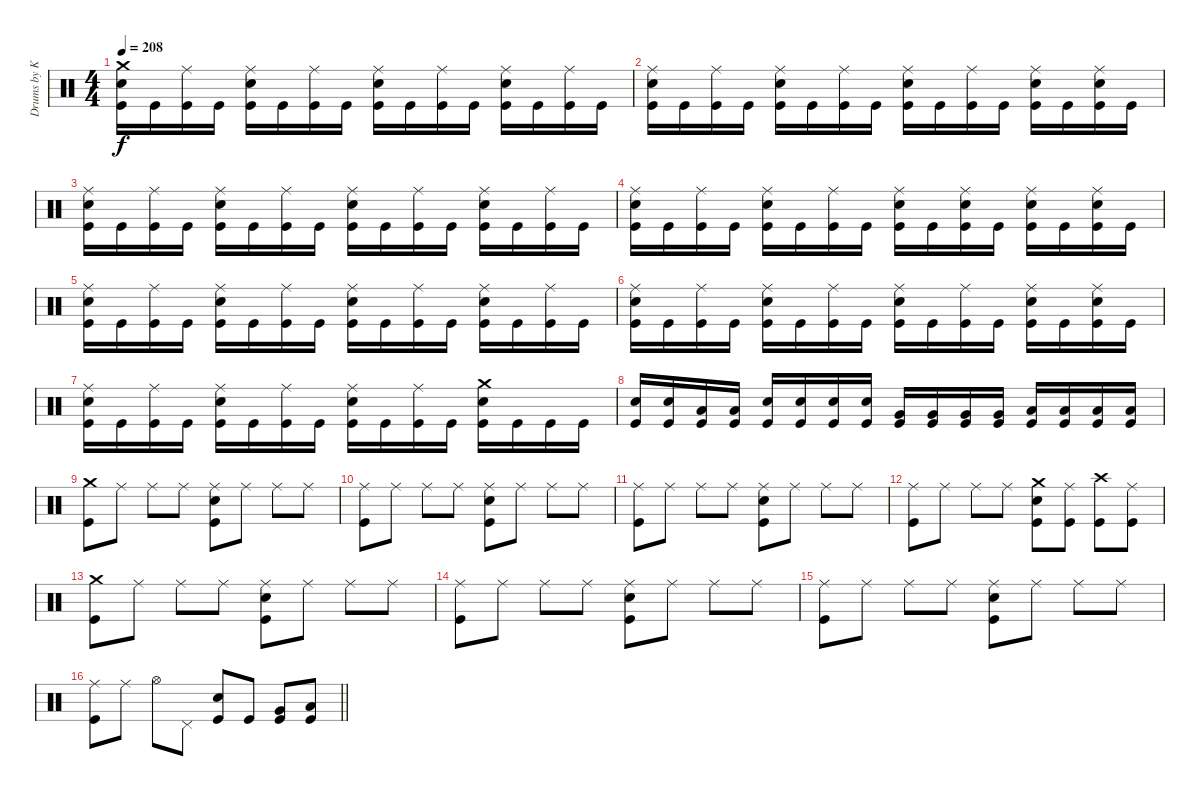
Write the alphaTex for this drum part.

\track ("Drums by Kwonnie" "Drums by K") {instrument percussion}
\staff {score}
\articulation defaults
\ts (4 4)
\tempo 208
\clef neutral
\ks c
("Crash medium (hit)" "Electric Snare (hit)" "Kick (hit)").16{dy f} "Kick (hit)".16 ("Ride (middle)" "Kick (hit)").16 "Kick (hit)".16 ("Ride (middle)" "Electric Snare (hit)" "Kick (hit)").16 "Kick (hit)".16 ("Ride (middle)" "Kick (hit)").16 "Kick (hit)".16 ("Ride (middle)" "Electric Snare (hit)" "Kick (hit)").16 "Kick (hit)".16 ("Ride (middle)" "Kick (hit)").16 "Kick (hit)".16 ("Ride (middle)" "Electric Snare (hit)" "Kick (hit)").16 "Kick (hit)".16 ("Ride (middle)" "Kick (hit)").16 "Kick (hit)".16 |
("Ride (middle)" "Electric Snare (hit)" "Kick (hit)").16 "Kick (hit)".16 ("Ride (middle)" "Kick (hit)").16 "Kick (hit)".16 ("Ride (middle)" "Electric Snare (hit)" "Kick (hit)").16 "Kick (hit)".16 ("Ride (middle)" "Kick (hit)").16 "Kick (hit)".16 ("Ride (middle)" "Electric Snare (hit)" "Kick (hit)").16 "Kick (hit)".16 ("Ride (middle)" "Kick (hit)").16 "Kick (hit)".16 ("Ride (middle)" "Electric Snare (hit)" "Kick (hit)").16 "Kick (hit)".16 ("Ride (middle)" "Electric Snare (hit)" "Kick (hit)").16 "Kick (hit)".16 |
("Ride (middle)" "Electric Snare (hit)" "Kick (hit)").16 "Kick (hit)".16 ("Ride (middle)" "Kick (hit)").16 "Kick (hit)".16 ("Ride (middle)" "Electric Snare (hit)" "Kick (hit)").16 "Kick (hit)".16 ("Ride (middle)" "Kick (hit)").16 "Kick (hit)".16 ("Ride (middle)" "Electric Snare (hit)" "Kick (hit)").16 "Kick (hit)".16 ("Ride (middle)" "Kick (hit)").16 "Kick (hit)".16 ("Ride (middle)" "Electric Snare (hit)" "Kick (hit)").16 "Kick (hit)".16 ("Ride (middle)" "Kick (hit)").16 "Kick (hit)".16 |
("Ride (middle)" "Electric Snare (hit)" "Kick (hit)").16 "Kick (hit)".16 ("Ride (middle)" "Kick (hit)").16 "Kick (hit)".16 ("Ride (middle)" "Electric Snare (hit)" "Kick (hit)").16 "Kick (hit)".16 ("Ride (middle)" "Kick (hit)").16 "Kick (hit)".16 ("Ride (middle)" "Electric Snare (hit)" "Kick (hit)").16 "Kick (hit)".16 ("Ride (middle)" "Electric Snare (hit)" "Kick (hit)").16 "Kick (hit)".16 ("Ride (middle)" "Electric Snare (hit)" "Kick (hit)").16 "Kick (hit)".16 ("Ride (middle)" "Electric Snare (hit)" "Kick (hit)").16 "Kick (hit)".16 |
("Ride (middle)" "Electric Snare (hit)" "Kick (hit)").16 "Kick (hit)".16 ("Ride (middle)" "Kick (hit)").16 "Kick (hit)".16 ("Ride (middle)" "Electric Snare (hit)" "Kick (hit)").16 "Kick (hit)".16 ("Ride (middle)" "Kick (hit)").16 "Kick (hit)".16 ("Ride (middle)" "Electric Snare (hit)" "Kick (hit)").16 "Kick (hit)".16 ("Ride (middle)" "Kick (hit)").16 "Kick (hit)".16 ("Ride (middle)" "Electric Snare (hit)" "Kick (hit)").16 "Kick (hit)".16 ("Ride (middle)" "Kick (hit)").16 "Kick (hit)".16 |
("Ride (middle)" "Electric Snare (hit)" "Kick (hit)").16 "Kick (hit)".16 ("Ride (middle)" "Kick (hit)").16 "Kick (hit)".16 ("Ride (middle)" "Electric Snare (hit)" "Kick (hit)").16 "Kick (hit)".16 ("Ride (middle)" "Kick (hit)").16 "Kick (hit)".16 ("Ride (middle)" "Electric Snare (hit)" "Kick (hit)").16 "Kick (hit)".16 ("Ride (middle)" "Kick (hit)").16 "Kick (hit)".16 ("Ride (middle)" "Electric Snare (hit)" "Kick (hit)").16 "Kick (hit)".16 ("Ride (middle)" "Electric Snare (hit)" "Kick (hit)").16 "Kick (hit)".16 |
("Ride (middle)" "Electric Snare (hit)" "Kick (hit)").16 "Kick (hit)".16 ("Ride (middle)" "Kick (hit)").16 "Kick (hit)".16 ("Ride (middle)" "Electric Snare (hit)" "Kick (hit)").16 "Kick (hit)".16 ("Ride (middle)" "Kick (hit)").16 "Kick (hit)".16 ("Ride (middle)" "Electric Snare (hit)" "Kick (hit)").16 "Kick (hit)".16 ("Ride (middle)" "Kick (hit)").16 "Kick (hit)".16 ("Crash medium (hit)" "Electric Snare (hit)" "Kick (hit)").16 "Kick (hit)".16 "Kick (hit)".16 "Kick (hit)".16 |
("Electric Snare (hit)" "Kick (hit)").16 ("Electric Snare (hit)" "Kick (hit)").16 ("Low Tom (hit)" "Kick (hit)").16 ("Low Tom (hit)" "Kick (hit)").16 ("Electric Snare (hit)" "Kick (hit)").16 ("Electric Snare (hit)" "Kick (hit)").16 ("Electric Snare (hit)" "Kick (hit)").16 ("Electric Snare (hit)" "Kick (hit)").16 ("Very Low Tom (hit)" "Kick (hit)").16 ("Very Low Tom (hit)" "Kick (hit)").16 ("Very Low Tom (hit)" "Kick (hit)").16 ("Very Low Tom (hit)" "Kick (hit)").16 ("Low Floor Tom (hit)" "Kick (hit)").16 ("Low Floor Tom (hit)" "Kick (hit)").16 ("Low Floor Tom (hit)" "Kick (hit)").16 ("Low Floor Tom (hit)" "Kick (hit)").16 |
("Crash medium (hit)" "Kick (hit)").8 "Ride (middle)".8 "Ride (middle)".8 "Ride (middle)".8 ("Ride (middle)" "Electric Snare (hit)" "Kick (hit)").8 "Ride (middle)".8 "Ride (middle)".8 "Ride (middle)".8 |
("Ride (middle)" "Kick (hit)").8 "Ride (middle)".8 "Ride (middle)".8 "Ride (middle)".8 ("Ride (middle)" "Electric Snare (hit)" "Kick (hit)").8 "Ride (middle)".8 "Ride (middle)".8 "Ride (middle)".8 |
("Ride (middle)" "Kick (hit)").8 "Ride (middle)".8 "Ride (middle)".8 "Ride (middle)".8 ("Ride (middle)" "Electric Snare (hit)" "Kick (hit)").8 "Ride (middle)".8 "Ride (middle)".8 "Ride (middle)".8 |
("Ride (middle)" "Kick (hit)").8 "Ride (middle)".8 "Ride (middle)".8 "Ride (middle)".8 ("Crash medium (hit)" "Electric Snare (hit)" "Kick (hit)").8 ("Ride (middle)" "Kick (hit)").8 ("Crash high (hit)" "Kick (hit)").8 ("Ride (middle)" "Kick (hit)").8 |
("Crash medium (hit)" "Kick (hit)").8 "Ride (middle)".8 "Ride (middle)".8 "Ride (middle)".8 ("Ride (middle)" "Electric Snare (hit)" "Kick (hit)").8 "Ride (middle)".8 "Ride (middle)".8 "Ride (middle)".8 |
("Ride (middle)" "Kick (hit)").8 "Ride (middle)".8 "Ride (middle)".8 "Ride (middle)".8 ("Ride (middle)" "Electric Snare (hit)" "Kick (hit)").8 "Ride (middle)".8 "Ride (middle)".8 "Ride (middle)".8 |
("Ride (middle)" "Kick (hit)").8 "Ride (middle)".8 "Ride (middle)".8 "Ride (middle)".8 ("Ride (middle)" "Electric Snare (hit)" "Kick (hit)").8 "Ride (middle)".8 "Ride (middle)".8 "Ride (middle)".8 |
\barLineRight lightlight
("Ride (middle)" "Kick (hit)").8 "Ride (middle)".8 "Hi-Hat (open)".8 "Pedal Hi-Hat (hit)".8 ("Electric Snare (hit)" "Kick (hit)").8 "Kick (hit)".8 ("Very Low Tom (hit)" "Kick (hit)").8 ("Low Floor Tom (hit)" "Kick (hit)").8
